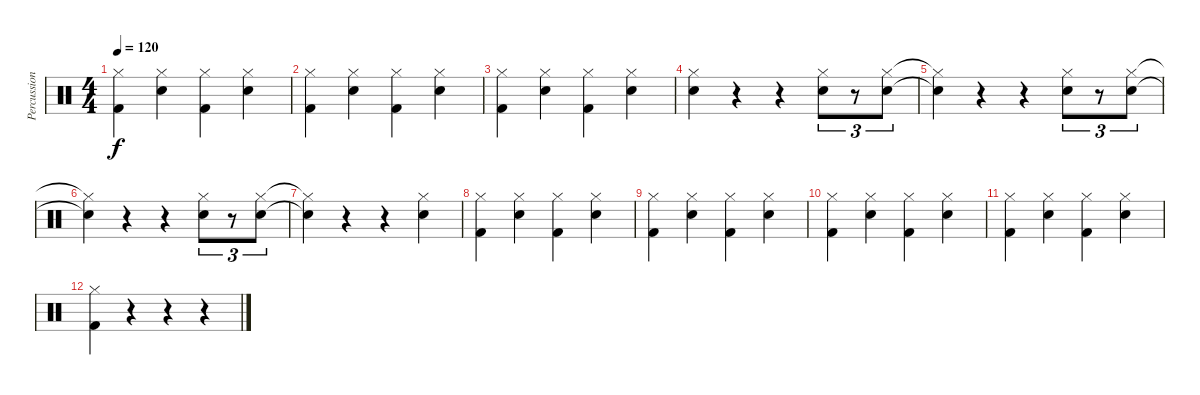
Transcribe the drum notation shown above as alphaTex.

\track ("Percussions" "Percussion") {instrument percussion}
\staff {score}
\articulation defaults
\ts (4 4)
\tempo 120
\clef neutral
\ks c
("Hi-Hat (closed)" "Kick (hit) 2").4{dy f} ("Hi-Hat (closed)" "Electric Snare (hit)").4 ("Hi-Hat (closed)" "Kick (hit) 2").4 ("Hi-Hat (closed)" "Electric Snare (hit)").4 |
("Hi-Hat (closed)" "Kick (hit) 2").4 ("Hi-Hat (closed)" "Electric Snare (hit)").4 ("Hi-Hat (closed)" "Kick (hit) 2").4 ("Hi-Hat (closed)" "Electric Snare (hit)").4 |
("Hi-Hat (closed)" "Kick (hit) 2").4 ("Hi-Hat (closed)" "Electric Snare (hit)").4 ("Hi-Hat (closed)" "Kick (hit) 2").4 ("Hi-Hat (closed)" "Electric Snare (hit)").4 |
("Hi-Hat (closed)" "Electric Snare (hit)").4 r.4 r.4 ("Hi-Hat (closed)" "Electric Snare (hit)").8{tu (3 2)} r.8{tu (3 2)} ("Hi-Hat (closed)" "Electric Snare (hit)").8{tu (3 2)} |
("Hi-Hat (closed)"{t} "Electric Snare (hit)"{t}).4 r.4 r.4 ("Hi-Hat (closed)" "Electric Snare (hit)").8{tu (3 2)} r.8{tu (3 2)} ("Hi-Hat (closed)" "Electric Snare (hit)").8{tu (3 2)} |
("Hi-Hat (closed)"{t} "Electric Snare (hit)"{t}).4 r.4 r.4 ("Hi-Hat (closed)" "Electric Snare (hit)").8{tu (3 2)} r.8{tu (3 2)} ("Hi-Hat (closed)" "Electric Snare (hit)").8{tu (3 2)} |
("Hi-Hat (closed)"{t} "Electric Snare (hit)"{t}).4 r.4 r.4 ("Hi-Hat (closed)" "Electric Snare (hit)").4 |
("Hi-Hat (closed)" "Kick (hit) 2").4 ("Hi-Hat (closed)" "Electric Snare (hit)").4 ("Hi-Hat (closed)" "Kick (hit) 2").4 ("Hi-Hat (closed)" "Electric Snare (hit)").4 |
("Hi-Hat (closed)" "Kick (hit) 2").4 ("Hi-Hat (closed)" "Electric Snare (hit)").4 ("Hi-Hat (closed)" "Kick (hit) 2").4 ("Hi-Hat (closed)" "Electric Snare (hit)").4 |
("Hi-Hat (closed)" "Kick (hit) 2").4 ("Hi-Hat (closed)" "Electric Snare (hit)").4 ("Hi-Hat (closed)" "Kick (hit) 2").4 ("Hi-Hat (closed)" "Electric Snare (hit)").4 |
("Hi-Hat (closed)" "Kick (hit) 2").4 ("Hi-Hat (closed)" "Electric Snare (hit)").4 ("Hi-Hat (closed)" "Kick (hit) 2").4 ("Hi-Hat (closed)" "Electric Snare (hit)").4 |
("Hi-Hat (closed)" "Kick (hit) 2").4 r.4 r.4 r.4
